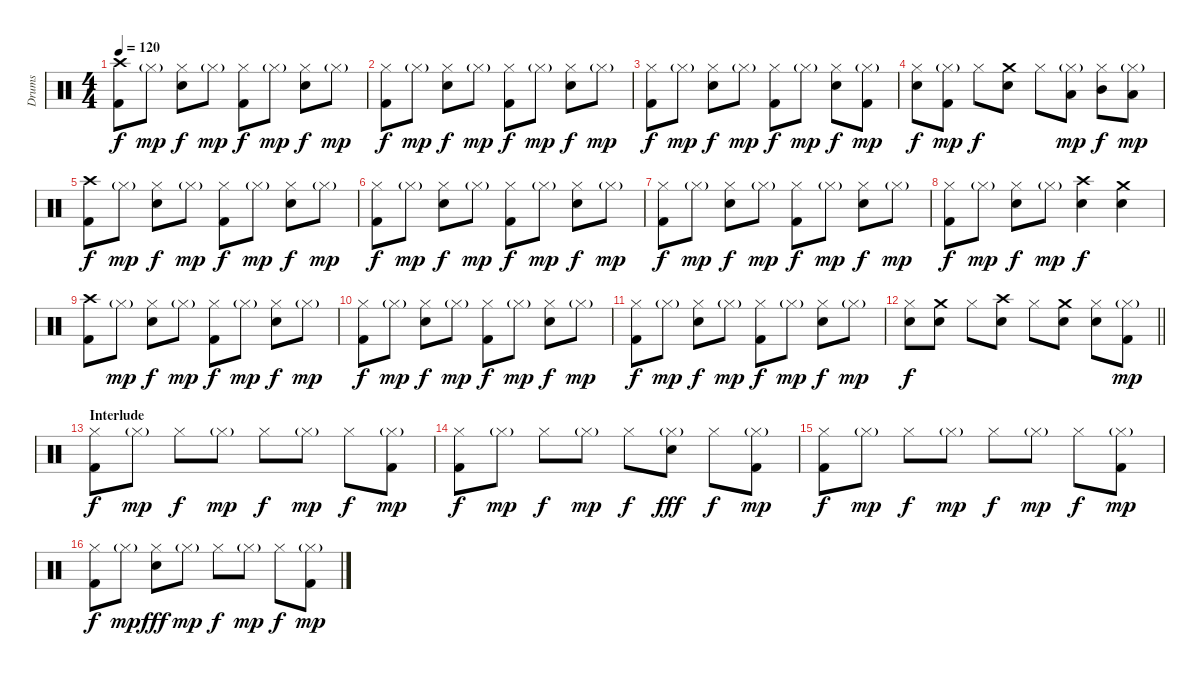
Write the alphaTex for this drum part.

\track ("Drums" "Drums") {instrument percussion}
\staff {score}
\articulation defaults
\ts (4 4)
\tempo 120
\clef neutral
\ks c
("Crash high (hit)" "Kick (hit) 2").8{dy f} "Hi-Hat (closed)"{g}.8{dy mp} ("Hi-Hat (closed)" "Electric Snare (hit)").8{dy f} "Hi-Hat (closed)"{g}.8{dy mp} ("Hi-Hat (closed)" "Kick (hit) 2").8{dy f} "Hi-Hat (closed)"{g}.8{dy mp} ("Hi-Hat (closed)" "Electric Snare (hit)").8{dy f} "Hi-Hat (closed)"{g}.8{dy mp} |
("Hi-Hat (closed)" "Kick (hit) 2").8{dy f} "Hi-Hat (closed)"{g}.8{dy mp} ("Hi-Hat (closed)" "Electric Snare (hit)").8{dy f} "Hi-Hat (closed)"{g}.8{dy mp} ("Hi-Hat (closed)" "Kick (hit) 2").8{dy f} "Hi-Hat (closed)"{g}.8{dy mp} ("Hi-Hat (closed)" "Electric Snare (hit)").8{dy f} "Hi-Hat (closed)"{g}.8{dy mp} |
("Hi-Hat (closed)" "Kick (hit) 2").8{dy f} "Hi-Hat (closed)"{g}.8{dy mp} ("Hi-Hat (closed)" "Electric Snare (hit)").8{dy f} "Hi-Hat (closed)"{g}.8{dy mp} ("Hi-Hat (closed)" "Kick (hit) 2").8{dy f} "Hi-Hat (closed)"{g}.8{dy mp} ("Hi-Hat (closed)" "Electric Snare (hit)").8{dy f} ("Hi-Hat (closed)"{g} "Kick (hit) 2").8{dy mp} |
("Hi-Hat (closed)" "Electric Snare (hit)").8{dy f} ("Hi-Hat (closed)"{g} "Kick (hit) 2").8{dy mp} "Hi-Hat (closed)".8{dy f} ("Crash medium (hit)" "Electric Snare (hit)").8 "Hi-Hat (closed)".8 ("Low Tom (hit)" "Hi-Hat (closed)"{g}).8{dy mp} ("Mid Tom (hit)" "Hi-Hat (closed)").8{dy f} ("Low Tom (hit)" "Hi-Hat (closed)"{g}).8{dy mp} |
("Crash high (hit)" "Kick (hit) 2").8{dy f} "Hi-Hat (closed)"{g}.8{dy mp} ("Hi-Hat (closed)" "Electric Snare (hit)").8{dy f} "Hi-Hat (closed)"{g}.8{dy mp} ("Hi-Hat (closed)" "Kick (hit) 2").8{dy f} "Hi-Hat (closed)"{g}.8{dy mp} ("Hi-Hat (closed)" "Electric Snare (hit)").8{dy f} "Hi-Hat (closed)"{g}.8{dy mp} |
("Hi-Hat (closed)" "Kick (hit) 2").8{dy f} "Hi-Hat (closed)"{g}.8{dy mp} ("Hi-Hat (closed)" "Electric Snare (hit)").8{dy f} "Hi-Hat (closed)"{g}.8{dy mp} ("Hi-Hat (closed)" "Kick (hit) 2").8{dy f} "Hi-Hat (closed)"{g}.8{dy mp} ("Hi-Hat (closed)" "Electric Snare (hit)").8{dy f} "Hi-Hat (closed)"{g}.8{dy mp} |
("Hi-Hat (closed)" "Kick (hit) 2").8{dy f} "Hi-Hat (closed)"{g}.8{dy mp} ("Hi-Hat (closed)" "Electric Snare (hit)").8{dy f} "Hi-Hat (closed)"{g}.8{dy mp} ("Hi-Hat (closed)" "Kick (hit) 2").8{dy f} "Hi-Hat (closed)"{g}.8{dy mp} ("Hi-Hat (closed)" "Electric Snare (hit)").8{dy f} "Hi-Hat (closed)"{g}.8{dy mp} |
("Hi-Hat (closed)" "Kick (hit) 2").8{dy f} "Hi-Hat (closed)"{g}.8{dy mp} ("Hi-Hat (closed)" "Electric Snare (hit)").8{dy f} "Hi-Hat (closed)"{g}.8{dy mp} ("Crash high (hit)" "Electric Snare (hit)").4{dy f} ("Crash medium (hit)" "Electric Snare (hit)").4 |
("Crash high (hit)" "Kick (hit) 2").8 "Hi-Hat (closed)"{g}.8{dy mp} ("Hi-Hat (closed)" "Electric Snare (hit)").8{dy f} "Hi-Hat (closed)"{g}.8{dy mp} ("Hi-Hat (closed)" "Kick (hit) 2").8{dy f} "Hi-Hat (closed)"{g}.8{dy mp} ("Hi-Hat (closed)" "Electric Snare (hit)").8{dy f} "Hi-Hat (closed)"{g}.8{dy mp} |
("Hi-Hat (closed)" "Kick (hit) 2").8{dy f} "Hi-Hat (closed)"{g}.8{dy mp} ("Hi-Hat (closed)" "Electric Snare (hit)").8{dy f} "Hi-Hat (closed)"{g}.8{dy mp} ("Hi-Hat (closed)" "Kick (hit) 2").8{dy f} "Hi-Hat (closed)"{g}.8{dy mp} ("Hi-Hat (closed)" "Electric Snare (hit)").8{dy f} "Hi-Hat (closed)"{g}.8{dy mp} |
("Hi-Hat (closed)" "Kick (hit) 2").8{dy f} "Hi-Hat (closed)"{g}.8{dy mp} ("Hi-Hat (closed)" "Electric Snare (hit)").8{dy f} "Hi-Hat (closed)"{g}.8{dy mp} ("Hi-Hat (closed)" "Kick (hit) 2").8{dy f} "Hi-Hat (closed)"{g}.8{dy mp} ("Hi-Hat (closed)" "Electric Snare (hit)").8{dy f} "Hi-Hat (closed)"{g}.8{dy mp} |
\barLineRight lightlight
("Hi-Hat (closed)" "Electric Snare (hit)").8{dy f} ("Crash medium (hit)" "Electric Snare (hit)").8 "Hi-Hat (closed)".8 ("Crash high (hit)" "Electric Snare (hit)").8 "Hi-Hat (closed)".8 ("Crash medium (hit)" "Electric Snare (hit)").8 ("Hi-Hat (closed)" "Electric Snare (hit)").8 ("Hi-Hat (closed)"{g} "Kick (hit) 2").8{dy mp} |
\section ("" "Interlude")
("Hi-Hat (closed)" "Kick (hit) 2").8{dy f} "Hi-Hat (closed)"{g}.8{dy mp} "Hi-Hat (closed)".8{dy f} "Hi-Hat (closed)"{g}.8{dy mp} "Hi-Hat (closed)".8{dy f} "Hi-Hat (closed)"{g}.8{dy mp} "Hi-Hat (closed)".8{dy f} ("Hi-Hat (closed)"{g} "Kick (hit) 2").8{dy mp} |
("Hi-Hat (closed)" "Kick (hit) 2").8{dy f} "Hi-Hat (closed)"{g}.8{dy mp} "Hi-Hat (closed)".8{dy f} "Hi-Hat (closed)"{g}.8{dy mp} "Hi-Hat (closed)".8{dy f} ("Hi-Hat (closed)"{g} "Electric Snare (hit)").8{dy fff} "Hi-Hat (closed)".8{dy f} ("Hi-Hat (closed)"{g} "Kick (hit) 2").8{dy mp} |
("Hi-Hat (closed)" "Kick (hit) 2").8{dy f} "Hi-Hat (closed)"{g}.8{dy mp} "Hi-Hat (closed)".8{dy f} "Hi-Hat (closed)"{g}.8{dy mp} "Hi-Hat (closed)".8{dy f} "Hi-Hat (closed)"{g}.8{dy mp} "Hi-Hat (closed)".8{dy f} ("Hi-Hat (closed)"{g} "Kick (hit) 2").8{dy mp} |
("Hi-Hat (closed)" "Kick (hit) 2").8{dy f} "Hi-Hat (closed)"{g}.8{dy mp} ("Hi-Hat (closed)" "Electric Snare (hit)").8{dy fff} "Hi-Hat (closed)"{g}.8{dy mp} "Hi-Hat (closed)".8{dy f} "Hi-Hat (closed)"{g}.8{dy mp} "Hi-Hat (closed)".8{dy f} ("Hi-Hat (closed)"{g} "Kick (hit) 2").8{dy mp}
